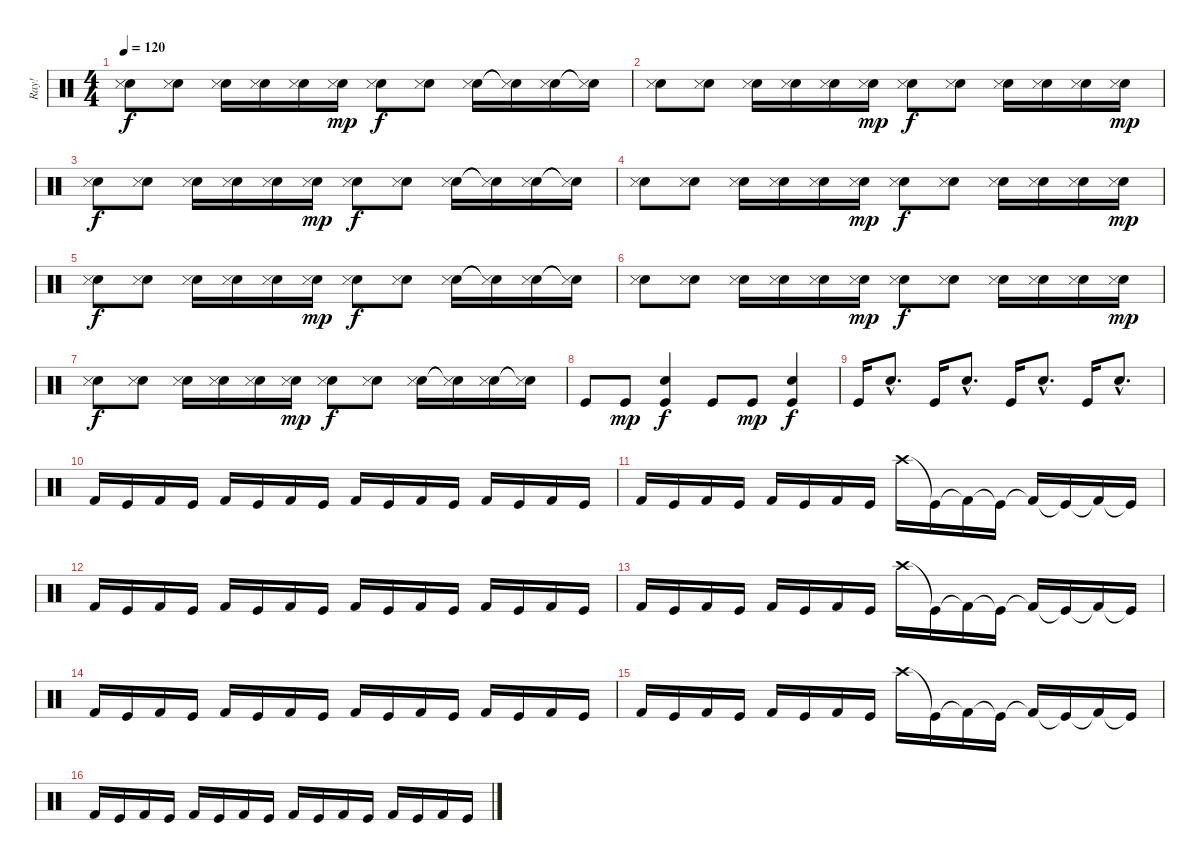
\track ("Ray!" "Ray!") {instrument percussion}
\staff {score}
\articulation defaults
\ts (4 4)
\tempo 120
\clef neutral
\ks c
("Snare (hit) 2" "Snare (side stick) 3").8{dy f} ("Snare (hit) 2" "Snare (side stick) 3").8 ("Snare (hit) 2" "Snare (side stick) 3").16 ("Snare (hit) 2" "Snare (side stick) 3").16 ("Snare (hit) 2" "Snare (side stick) 3").16 ("Snare (hit) 2" "Snare (side stick) 3").16{dy mp} ("Snare (hit) 2" "Snare (side stick) 3").8{dy f} ("Snare (hit) 2" "Snare (side stick) 3").8 ("Snare (hit) 2" "Snare (side stick) 3").16 ("Snare (hit) 2"{t} "Snare (side stick) 3"{t}).16 ("Snare (hit) 2" "Snare (side stick) 3").16 ("Snare (hit) 2"{t} "Snare (side stick) 3"{t}).16 |
("Snare (hit) 2" "Snare (side stick) 3").8 ("Snare (hit) 2" "Snare (side stick) 3").8 ("Snare (hit) 2" "Snare (side stick) 3").16 ("Snare (hit) 2" "Snare (side stick) 3").16 ("Snare (hit) 2" "Snare (side stick) 3").16 ("Snare (hit) 2" "Snare (side stick) 3").16{dy mp} ("Snare (hit) 2" "Snare (side stick) 3").8{dy f} ("Snare (hit) 2" "Snare (side stick) 3").8 ("Snare (hit) 2" "Snare (side stick) 3").16 ("Snare (hit) 2" "Snare (side stick) 3").16 ("Snare (hit) 2" "Snare (side stick) 3").16 ("Snare (hit) 2" "Snare (side stick) 3").16{dy mp} |
("Snare (hit) 2" "Snare (side stick) 3").8{dy f} ("Snare (hit) 2" "Snare (side stick) 3").8 ("Snare (hit) 2" "Snare (side stick) 3").16 ("Snare (hit) 2" "Snare (side stick) 3").16 ("Snare (hit) 2" "Snare (side stick) 3").16 ("Snare (hit) 2" "Snare (side stick) 3").16{dy mp} ("Snare (hit) 2" "Snare (side stick) 3").8{dy f} ("Snare (hit) 2" "Snare (side stick) 3").8 ("Snare (hit) 2" "Snare (side stick) 3").16 ("Snare (hit) 2"{t} "Snare (side stick) 3"{t}).16 ("Snare (hit) 2" "Snare (side stick) 3").16 ("Snare (hit) 2"{t} "Snare (side stick) 3"{t}).16 |
("Snare (hit) 2" "Snare (side stick) 3").8 ("Snare (hit) 2" "Snare (side stick) 3").8 ("Snare (hit) 2" "Snare (side stick) 3").16 ("Snare (hit) 2" "Snare (side stick) 3").16 ("Snare (hit) 2" "Snare (side stick) 3").16 ("Snare (hit) 2" "Snare (side stick) 3").16{dy mp} ("Snare (hit) 2" "Snare (side stick) 3").8{dy f} ("Snare (hit) 2" "Snare (side stick) 3").8 ("Snare (hit) 2" "Snare (side stick) 3").16 ("Snare (hit) 2" "Snare (side stick) 3").16 ("Snare (hit) 2" "Snare (side stick) 3").16 ("Snare (hit) 2" "Snare (side stick) 3").16{dy mp} |
("Snare (hit) 2" "Snare (side stick) 3").8{dy f} ("Snare (hit) 2" "Snare (side stick) 3").8 ("Snare (hit) 2" "Snare (side stick) 3").16 ("Snare (hit) 2" "Snare (side stick) 3").16 ("Snare (hit) 2" "Snare (side stick) 3").16 ("Snare (hit) 2" "Snare (side stick) 3").16{dy mp} ("Snare (hit) 2" "Snare (side stick) 3").8{dy f} ("Snare (hit) 2" "Snare (side stick) 3").8 ("Snare (hit) 2" "Snare (side stick) 3").16 ("Snare (hit) 2"{t} "Snare (side stick) 3"{t}).16 ("Snare (hit) 2" "Snare (side stick) 3").16 ("Snare (hit) 2"{t} "Snare (side stick) 3"{t}).16 |
("Snare (hit) 2" "Snare (side stick) 3").8 ("Snare (hit) 2" "Snare (side stick) 3").8 ("Snare (hit) 2" "Snare (side stick) 3").16 ("Snare (hit) 2" "Snare (side stick) 3").16 ("Snare (hit) 2" "Snare (side stick) 3").16 ("Snare (hit) 2" "Snare (side stick) 3").16{dy mp} ("Snare (hit) 2" "Snare (side stick) 3").8{dy f} ("Snare (hit) 2" "Snare (side stick) 3").8 ("Snare (hit) 2" "Snare (side stick) 3").16 ("Snare (hit) 2" "Snare (side stick) 3").16 ("Snare (hit) 2" "Snare (side stick) 3").16 ("Snare (hit) 2" "Snare (side stick) 3").16{dy mp} |
("Snare (hit) 2" "Snare (side stick) 3").8{dy f} ("Snare (hit) 2" "Snare (side stick) 3").8 ("Snare (hit) 2" "Snare (side stick) 3").16 ("Snare (hit) 2" "Snare (side stick) 3").16 ("Snare (hit) 2" "Snare (side stick) 3").16 ("Snare (hit) 2" "Snare (side stick) 3").16{dy mp} ("Snare (hit) 2" "Snare (side stick) 3").8{dy f} ("Snare (hit) 2" "Snare (side stick) 3").8 ("Snare (hit) 2" "Snare (side stick) 3").16 ("Snare (hit) 2"{t} "Snare (side stick) 3"{t}).16 ("Snare (hit) 2" "Snare (side stick) 3").16 ("Snare (hit) 2"{t} "Snare (side stick) 3"{t}).16 |
"Kick (hit)".8 "Kick (hit)".8{dy mp} ("Kick (hit)" "Snare (hit) 2").4{dy f} "Kick (hit)".8 "Kick (hit)".8{dy mp} ("Kick (hit)" "Snare (hit) 2").4{dy f} |
"Kick (hit)".16 "Snare (hit) 2"{hac}.8{d} "Kick (hit)".16 "Snare (hit) 2"{hac}.8{d} "Kick (hit)".16 "Snare (hit) 2"{hac}.8{d} "Kick (hit)".16 "Snare (hit) 2"{hac}.8{d} |
"Kick (hit) 2".16 "Kick (hit)".16 "Kick (hit) 2".16 "Kick (hit)".16 "Kick (hit) 2".16 "Kick (hit)".16 "Kick (hit) 2".16 "Kick (hit)".16 "Kick (hit) 2".16 "Kick (hit)".16 "Kick (hit) 2".16 "Kick (hit)".16 "Kick (hit) 2".16 "Kick (hit)".16 "Kick (hit) 2".16 "Kick (hit)".16 |
"Kick (hit) 2".16 "Kick (hit)".16 "Kick (hit) 2".16 "Kick (hit)".16 "Kick (hit) 2".16 "Kick (hit)".16 "Kick (hit) 2".16 "Kick (hit)".16 "Crash high (hit)".16 "Kick (hit)"{t}.16 "Kick (hit) 2"{t}.16 "Kick (hit)"{t}.16 "Kick (hit) 2"{t}.16 "Kick (hit)"{t}.16 "Kick (hit) 2"{t}.16 "Kick (hit)"{t}.16 |
"Kick (hit) 2".16 "Kick (hit)".16 "Kick (hit) 2".16 "Kick (hit)".16 "Kick (hit) 2".16 "Kick (hit)".16 "Kick (hit) 2".16 "Kick (hit)".16 "Kick (hit) 2".16 "Kick (hit)".16 "Kick (hit) 2".16 "Kick (hit)".16 "Kick (hit) 2".16 "Kick (hit)".16 "Kick (hit) 2".16 "Kick (hit)".16 |
"Kick (hit) 2".16 "Kick (hit)".16 "Kick (hit) 2".16 "Kick (hit)".16 "Kick (hit) 2".16 "Kick (hit)".16 "Kick (hit) 2".16 "Kick (hit)".16 "Crash high (hit)".16 "Kick (hit)"{t}.16 "Kick (hit) 2"{t}.16 "Kick (hit)"{t}.16 "Kick (hit) 2"{t}.16 "Kick (hit)"{t}.16 "Kick (hit) 2"{t}.16 "Kick (hit)"{t}.16 |
"Kick (hit) 2".16 "Kick (hit)".16 "Kick (hit) 2".16 "Kick (hit)".16 "Kick (hit) 2".16 "Kick (hit)".16 "Kick (hit) 2".16 "Kick (hit)".16 "Kick (hit) 2".16 "Kick (hit)".16 "Kick (hit) 2".16 "Kick (hit)".16 "Kick (hit) 2".16 "Kick (hit)".16 "Kick (hit) 2".16 "Kick (hit)".16 |
"Kick (hit) 2".16 "Kick (hit)".16 "Kick (hit) 2".16 "Kick (hit)".16 "Kick (hit) 2".16 "Kick (hit)".16 "Kick (hit) 2".16 "Kick (hit)".16 "Crash high (hit)".16 "Kick (hit)"{t}.16 "Kick (hit) 2"{t}.16 "Kick (hit)"{t}.16 "Kick (hit) 2"{t}.16 "Kick (hit)"{t}.16 "Kick (hit) 2"{t}.16 "Kick (hit)"{t}.16 |
"Kick (hit) 2".16 "Kick (hit)".16 "Kick (hit) 2".16 "Kick (hit)".16 "Kick (hit) 2".16 "Kick (hit)".16 "Kick (hit) 2".16 "Kick (hit)".16 "Kick (hit) 2".16 "Kick (hit)".16 "Kick (hit) 2".16 "Kick (hit)".16 "Kick (hit) 2".16 "Kick (hit)".16 "Kick (hit) 2".16 "Kick (hit)".16
